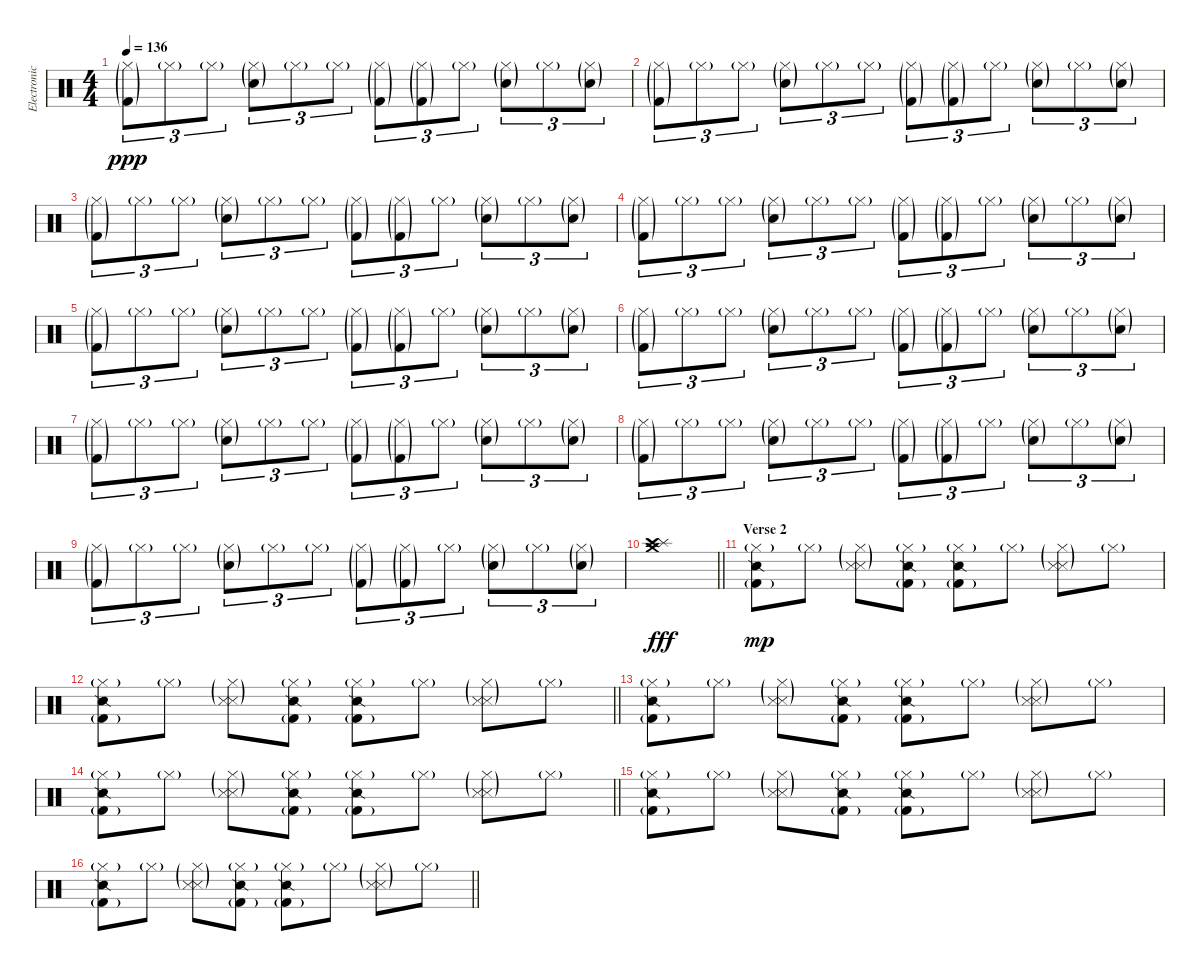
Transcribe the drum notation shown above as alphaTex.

\track ("Electronic Drums" "Electronic") {instrument percussion}
\staff {score}
\articulation defaults
\ts (4 4)
\tempo 136
\clef neutral
\ks c
("Hi-Hat (closed)"{g} "Kick (hit) 2"{g}).8{tu (3 2) dy ppp} "Hi-Hat (closed)"{g}.8{tu (3 2)} "Hi-Hat (closed)"{g}.8{tu (3 2)} ("Hi-Hat (closed)"{g} "Snare (hit) 2"{g}).8{tu (3 2)} "Hi-Hat (closed)"{g}.8{tu (3 2)} "Hi-Hat (closed)"{g}.8{tu (3 2)} ("Hi-Hat (closed)"{g} "Kick (hit) 2"{g}).8{tu (3 2)} ("Hi-Hat (closed)"{g} "Kick (hit) 2"{g}).8{tu (3 2)} "Hi-Hat (closed)"{g}.8{tu (3 2)} ("Hi-Hat (closed)"{g} "Snare (hit) 2"{g}).8{tu (3 2)} "Hi-Hat (closed)"{g}.8{tu (3 2)} ("Hi-Hat (closed)"{g} "Snare (hit) 2"{g}).8{tu (3 2)} |
("Hi-Hat (closed)"{g} "Kick (hit) 2"{g}).8{tu (3 2)} "Hi-Hat (closed)"{g}.8{tu (3 2)} "Hi-Hat (closed)"{g}.8{tu (3 2)} ("Hi-Hat (closed)"{g} "Snare (hit) 2"{g}).8{tu (3 2)} "Hi-Hat (closed)"{g}.8{tu (3 2)} "Hi-Hat (closed)"{g}.8{tu (3 2)} ("Hi-Hat (closed)"{g} "Kick (hit) 2"{g}).8{tu (3 2)} ("Hi-Hat (closed)"{g} "Kick (hit) 2"{g}).8{tu (3 2)} "Hi-Hat (closed)"{g}.8{tu (3 2)} ("Hi-Hat (closed)"{g} "Snare (hit) 2"{g}).8{tu (3 2)} "Hi-Hat (closed)"{g}.8{tu (3 2)} ("Hi-Hat (closed)"{g} "Snare (hit) 2"{g}).8{tu (3 2)} |
("Hi-Hat (closed)"{g} "Kick (hit) 2"{g}).8{tu (3 2)} "Hi-Hat (closed)"{g}.8{tu (3 2)} "Hi-Hat (closed)"{g}.8{tu (3 2)} ("Hi-Hat (closed)"{g} "Snare (hit) 2"{g}).8{tu (3 2)} "Hi-Hat (closed)"{g}.8{tu (3 2)} "Hi-Hat (closed)"{g}.8{tu (3 2)} ("Hi-Hat (closed)"{g} "Kick (hit) 2"{g}).8{tu (3 2)} ("Hi-Hat (closed)"{g} "Kick (hit) 2"{g}).8{tu (3 2)} "Hi-Hat (closed)"{g}.8{tu (3 2)} ("Hi-Hat (closed)"{g} "Snare (hit) 2"{g}).8{tu (3 2)} "Hi-Hat (closed)"{g}.8{tu (3 2)} ("Hi-Hat (closed)"{g} "Snare (hit) 2"{g}).8{tu (3 2)} |
("Hi-Hat (closed)"{g} "Kick (hit) 2"{g}).8{tu (3 2)} "Hi-Hat (closed)"{g}.8{tu (3 2)} "Hi-Hat (closed)"{g}.8{tu (3 2)} ("Hi-Hat (closed)"{g} "Snare (hit) 2"{g}).8{tu (3 2)} "Hi-Hat (closed)"{g}.8{tu (3 2)} "Hi-Hat (closed)"{g}.8{tu (3 2)} ("Hi-Hat (closed)"{g} "Kick (hit) 2"{g}).8{tu (3 2)} ("Hi-Hat (closed)"{g} "Kick (hit) 2"{g}).8{tu (3 2)} "Hi-Hat (closed)"{g}.8{tu (3 2)} ("Hi-Hat (closed)"{g} "Snare (hit) 2"{g}).8{tu (3 2)} "Hi-Hat (closed)"{g}.8{tu (3 2)} ("Hi-Hat (closed)"{g} "Snare (hit) 2"{g}).8{tu (3 2)} |
("Hi-Hat (closed)"{g} "Kick (hit) 2"{g}).8{tu (3 2)} "Hi-Hat (closed)"{g}.8{tu (3 2)} "Hi-Hat (closed)"{g}.8{tu (3 2)} ("Hi-Hat (closed)"{g} "Snare (hit) 2"{g}).8{tu (3 2)} "Hi-Hat (closed)"{g}.8{tu (3 2)} "Hi-Hat (closed)"{g}.8{tu (3 2)} ("Hi-Hat (closed)"{g} "Kick (hit) 2"{g}).8{tu (3 2)} ("Hi-Hat (closed)"{g} "Kick (hit) 2"{g}).8{tu (3 2)} "Hi-Hat (closed)"{g}.8{tu (3 2)} ("Hi-Hat (closed)"{g} "Snare (hit) 2"{g}).8{tu (3 2)} "Hi-Hat (closed)"{g}.8{tu (3 2)} ("Hi-Hat (closed)"{g} "Snare (hit) 2"{g}).8{tu (3 2)} |
("Hi-Hat (closed)"{g} "Kick (hit) 2"{g}).8{tu (3 2)} "Hi-Hat (closed)"{g}.8{tu (3 2)} "Hi-Hat (closed)"{g}.8{tu (3 2)} ("Hi-Hat (closed)"{g} "Snare (hit) 2"{g}).8{tu (3 2)} "Hi-Hat (closed)"{g}.8{tu (3 2)} "Hi-Hat (closed)"{g}.8{tu (3 2)} ("Hi-Hat (closed)"{g} "Kick (hit) 2"{g}).8{tu (3 2)} ("Hi-Hat (closed)"{g} "Kick (hit) 2"{g}).8{tu (3 2)} "Hi-Hat (closed)"{g}.8{tu (3 2)} ("Hi-Hat (closed)"{g} "Snare (hit) 2"{g}).8{tu (3 2)} "Hi-Hat (closed)"{g}.8{tu (3 2)} ("Hi-Hat (closed)"{g} "Snare (hit) 2"{g}).8{tu (3 2)} |
("Hi-Hat (closed)"{g} "Kick (hit) 2"{g}).8{tu (3 2)} "Hi-Hat (closed)"{g}.8{tu (3 2)} "Hi-Hat (closed)"{g}.8{tu (3 2)} ("Hi-Hat (closed)"{g} "Snare (hit) 2"{g}).8{tu (3 2)} "Hi-Hat (closed)"{g}.8{tu (3 2)} "Hi-Hat (closed)"{g}.8{tu (3 2)} ("Hi-Hat (closed)"{g} "Kick (hit) 2"{g}).8{tu (3 2)} ("Hi-Hat (closed)"{g} "Kick (hit) 2"{g}).8{tu (3 2)} "Hi-Hat (closed)"{g}.8{tu (3 2)} ("Hi-Hat (closed)"{g} "Snare (hit) 2"{g}).8{tu (3 2)} "Hi-Hat (closed)"{g}.8{tu (3 2)} ("Hi-Hat (closed)"{g} "Snare (hit) 2"{g}).8{tu (3 2)} |
("Hi-Hat (closed)"{g} "Kick (hit) 2"{g}).8{tu (3 2)} "Hi-Hat (closed)"{g}.8{tu (3 2)} "Hi-Hat (closed)"{g}.8{tu (3 2)} ("Hi-Hat (closed)"{g} "Snare (hit) 2"{g}).8{tu (3 2)} "Hi-Hat (closed)"{g}.8{tu (3 2)} "Hi-Hat (closed)"{g}.8{tu (3 2)} ("Hi-Hat (closed)"{g} "Kick (hit) 2"{g}).8{tu (3 2)} ("Hi-Hat (closed)"{g} "Kick (hit) 2"{g}).8{tu (3 2)} "Hi-Hat (closed)"{g}.8{tu (3 2)} ("Hi-Hat (closed)"{g} "Snare (hit) 2"{g}).8{tu (3 2)} "Hi-Hat (closed)"{g}.8{tu (3 2)} ("Hi-Hat (closed)"{g} "Snare (hit) 2"{g}).8{tu (3 2)} |
("Hi-Hat (closed)"{g} "Kick (hit) 2"{g}).8{tu (3 2)} "Hi-Hat (closed)"{g}.8{tu (3 2)} "Hi-Hat (closed)"{g}.8{tu (3 2)} ("Hi-Hat (closed)"{g} "Snare (hit) 2"{g}).8{tu (3 2)} "Hi-Hat (closed)"{g}.8{tu (3 2)} "Hi-Hat (closed)"{g}.8{tu (3 2)} ("Hi-Hat (closed)"{g} "Kick (hit) 2"{g}).8{tu (3 2)} ("Hi-Hat (closed)"{g} "Kick (hit) 2"{g}).8{tu (3 2)} "Hi-Hat (closed)"{g}.8{tu (3 2)} ("Hi-Hat (closed)"{g} "Snare (hit) 2"{g}).8{tu (3 2)} "Hi-Hat (closed)"{g}.8{tu (3 2)} ("Hi-Hat (closed)"{g} "Snare (hit) 2"{g}).8{tu (3 2)} |
\barLineRight lightlight
("Splash (hit)" "Crash medium (hit)" "Crash high (hit)").1{dy fff} |
\section ("" "Verse 2")
("Hi-Hat (closed)"{g} "Kick (hit) 2"{g} "Snare (side stick) 2").8{dy mp} "Hi-Hat (closed)"{g}.8 ("Hi-Hat (closed)"{g} "Snare (side stick) 3"{g} "Metronome (hit)").8 ("Hi-Hat (closed)"{g} "Kick (hit) 2"{g} "Snare (side stick) 2").8 ("Hi-Hat (closed)"{g} "Kick (hit) 2"{g} "Snare (side stick) 2").8 "Hi-Hat (closed)"{g}.8 ("Hi-Hat (closed)"{g} "Snare (side stick) 3"{g} "Metronome (hit)").8 "Hi-Hat (closed)"{g}.8 |
\barLineRight lightlight
("Hi-Hat (closed)"{g} "Kick (hit) 2"{g} "Snare (side stick) 2").8 "Hi-Hat (closed)"{g}.8 ("Hi-Hat (closed)"{g} "Snare (side stick) 3"{g} "Metronome (hit)").8 ("Hi-Hat (closed)"{g} "Kick (hit) 2"{g} "Snare (side stick) 2").8 ("Hi-Hat (closed)"{g} "Kick (hit) 2"{g} "Snare (side stick) 2").8 "Hi-Hat (closed)"{g}.8 ("Hi-Hat (closed)"{g} "Snare (side stick) 3"{g} "Metronome (hit)").8 "Hi-Hat (closed)"{g}.8 |
("Hi-Hat (closed)"{g} "Kick (hit) 2"{g} "Snare (side stick) 2").8 "Hi-Hat (closed)"{g}.8 ("Hi-Hat (closed)"{g} "Snare (side stick) 3"{g} "Metronome (hit)").8 ("Hi-Hat (closed)"{g} "Kick (hit) 2"{g} "Snare (side stick) 2").8 ("Hi-Hat (closed)"{g} "Kick (hit) 2"{g} "Snare (side stick) 2").8 "Hi-Hat (closed)"{g}.8 ("Hi-Hat (closed)"{g} "Snare (side stick) 3"{g} "Metronome (hit)").8 "Hi-Hat (closed)"{g}.8 |
\barLineRight lightlight
("Hi-Hat (closed)"{g} "Kick (hit) 2"{g} "Snare (side stick) 2").8 "Hi-Hat (closed)"{g}.8 ("Hi-Hat (closed)"{g} "Snare (side stick) 3"{g} "Metronome (hit)").8 ("Hi-Hat (closed)"{g} "Kick (hit) 2"{g} "Snare (side stick) 2").8 ("Hi-Hat (closed)"{g} "Kick (hit) 2"{g} "Snare (side stick) 2").8 "Hi-Hat (closed)"{g}.8 ("Hi-Hat (closed)"{g} "Snare (side stick) 3"{g} "Metronome (hit)").8 "Hi-Hat (closed)"{g}.8 |
("Hi-Hat (closed)"{g} "Kick (hit) 2"{g} "Snare (side stick) 2").8 "Hi-Hat (closed)"{g}.8 ("Hi-Hat (closed)"{g} "Snare (side stick) 3"{g} "Metronome (hit)").8 ("Hi-Hat (closed)"{g} "Kick (hit) 2"{g} "Snare (side stick) 2").8 ("Hi-Hat (closed)"{g} "Kick (hit) 2"{g} "Snare (side stick) 2").8 "Hi-Hat (closed)"{g}.8 ("Hi-Hat (closed)"{g} "Snare (side stick) 3"{g} "Metronome (hit)").8 "Hi-Hat (closed)"{g}.8 |
\barLineRight lightlight
("Hi-Hat (closed)"{g} "Kick (hit) 2"{g} "Snare (side stick) 2").8 "Hi-Hat (closed)"{g}.8 ("Hi-Hat (closed)"{g} "Snare (side stick) 3"{g} "Metronome (hit)").8 ("Hi-Hat (closed)"{g} "Kick (hit) 2"{g} "Snare (side stick) 2").8 ("Hi-Hat (closed)"{g} "Kick (hit) 2"{g} "Snare (side stick) 2").8 "Hi-Hat (closed)"{g}.8 ("Hi-Hat (closed)"{g} "Snare (side stick) 3"{g} "Metronome (hit)").8 "Hi-Hat (closed)"{g}.8
